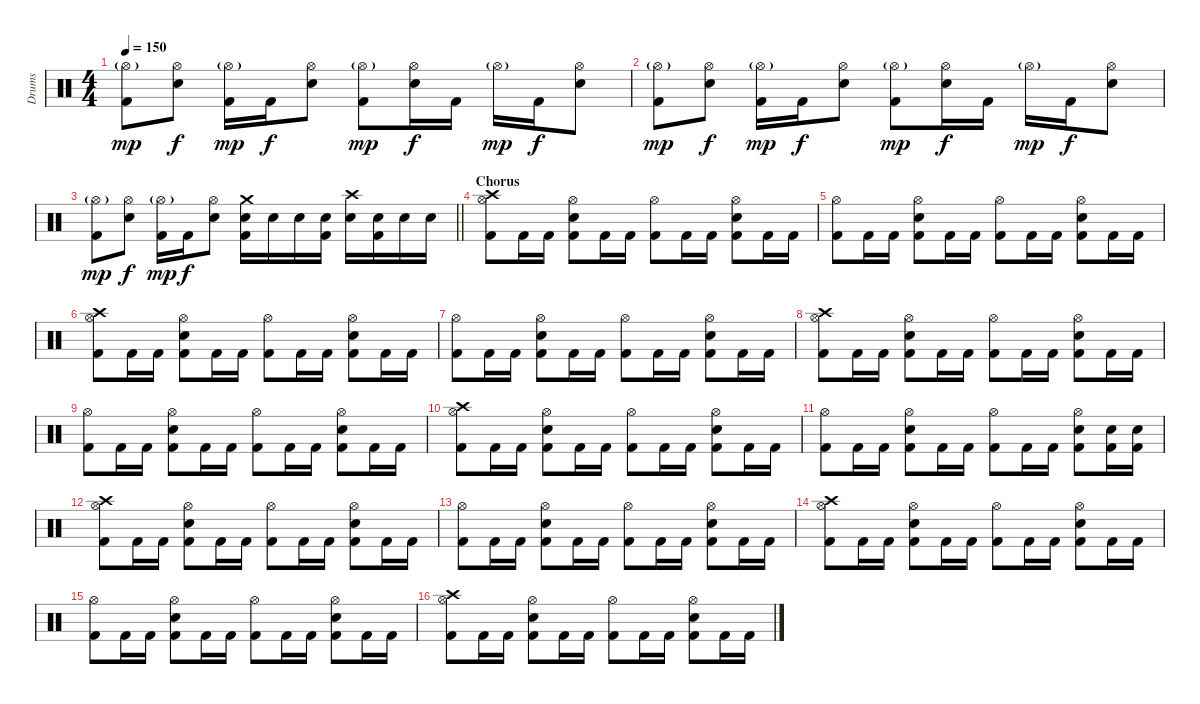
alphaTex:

\track ("Drums" "Drums") {instrument percussion}
\staff {score}
\articulation defaults
\ts (4 4)
\tempo 150
\clef neutral
\ks c
("Hi-Hat (open)"{g} "Kick (hit) 2").8{dy mp} ("Hi-Hat (open)" "Snare (hit) 2").8{dy f} ("Hi-Hat (open)"{g} "Kick (hit) 2").16{dy mp} "Kick (hit) 2".16{dy f} ("Hi-Hat (open)" "Snare (hit) 2").8 ("Hi-Hat (open)"{g} "Kick (hit) 2").8{dy mp} ("Hi-Hat (open)" "Snare (hit) 2").16{dy f} "Kick (hit) 2".16 "Hi-Hat (open)"{g}.16{dy mp} "Kick (hit) 2".16{dy f} ("Hi-Hat (open)" "Snare (hit) 2").8 |
("Hi-Hat (open)"{g} "Kick (hit) 2").8{dy mp} ("Hi-Hat (open)" "Snare (hit) 2").8{dy f} ("Hi-Hat (open)"{g} "Kick (hit) 2").16{dy mp} "Kick (hit) 2".16{dy f} ("Hi-Hat (open)" "Snare (hit) 2").8 ("Hi-Hat (open)"{g} "Kick (hit) 2").8{dy mp} ("Hi-Hat (open)" "Snare (hit) 2").16{dy f} "Kick (hit) 2".16 "Hi-Hat (open)"{g}.16{dy mp} "Kick (hit) 2".16{dy f} ("Hi-Hat (open)" "Snare (hit) 2").8 |
\barLineRight lightlight
("Hi-Hat (open)"{g} "Kick (hit) 2").8{dy mp} ("Hi-Hat (open)" "Snare (hit) 2").8{dy f} ("Hi-Hat (open)"{g} "Kick (hit) 2").16{dy mp} "Kick (hit) 2".16{dy f} ("Hi-Hat (open)" "Snare (hit) 2").8 ("Crash medium (hit)" "Snare (hit) 2" "Kick (hit) 2").16 "Snare (hit) 2".16 "Snare (hit) 2".16 ("Snare (hit) 2" "Kick (hit) 2").16 ("Crash high (hit)" "Snare (hit) 2").16 ("Snare (hit) 2" "Kick (hit) 2").16 "Snare (hit) 2".16 "Snare (hit) 2".16 |
\section ("" "Chorus")
("Crash high (hit)" "Hi-Hat (open)" "Kick (hit) 2").8 "Kick (hit) 2".16 "Kick (hit) 2".16 ("Hi-Hat (open)" "Snare (hit) 2" "Kick (hit) 2").8 "Kick (hit) 2".16 "Kick (hit) 2".16 ("Hi-Hat (open)" "Kick (hit) 2").8 "Kick (hit) 2".16 "Kick (hit) 2".16 ("Hi-Hat (open)" "Snare (hit) 2" "Kick (hit) 2").8 "Kick (hit) 2".16 "Kick (hit) 2".16 |
("Hi-Hat (open)" "Kick (hit) 2").8 "Kick (hit) 2".16 "Kick (hit) 2".16 ("Hi-Hat (open)" "Snare (hit) 2" "Kick (hit) 2").8 "Kick (hit) 2".16 "Kick (hit) 2".16 ("Hi-Hat (open)" "Kick (hit) 2").8 "Kick (hit) 2".16 "Kick (hit) 2".16 ("Hi-Hat (open)" "Snare (hit) 2" "Kick (hit) 2").8 "Kick (hit) 2".16 "Kick (hit) 2".16 |
("Crash high (hit)" "Hi-Hat (open)" "Kick (hit) 2").8 "Kick (hit) 2".16 "Kick (hit) 2".16 ("Hi-Hat (open)" "Snare (hit) 2" "Kick (hit) 2").8 "Kick (hit) 2".16 "Kick (hit) 2".16 ("Hi-Hat (open)" "Kick (hit) 2").8 "Kick (hit) 2".16 "Kick (hit) 2".16 ("Hi-Hat (open)" "Snare (hit) 2" "Kick (hit) 2").8 "Kick (hit) 2".16 "Kick (hit) 2".16 |
("Hi-Hat (open)" "Kick (hit) 2").8 "Kick (hit) 2".16 "Kick (hit) 2".16 ("Hi-Hat (open)" "Snare (hit) 2" "Kick (hit) 2").8 "Kick (hit) 2".16 "Kick (hit) 2".16 ("Hi-Hat (open)" "Kick (hit) 2").8 "Kick (hit) 2".16 "Kick (hit) 2".16 ("Hi-Hat (open)" "Snare (hit) 2" "Kick (hit) 2").8 "Kick (hit) 2".16 "Kick (hit) 2".16 |
("Crash high (hit)" "Hi-Hat (open)" "Kick (hit) 2").8 "Kick (hit) 2".16 "Kick (hit) 2".16 ("Hi-Hat (open)" "Snare (hit) 2" "Kick (hit) 2").8 "Kick (hit) 2".16 "Kick (hit) 2".16 ("Hi-Hat (open)" "Kick (hit) 2").8 "Kick (hit) 2".16 "Kick (hit) 2".16 ("Hi-Hat (open)" "Snare (hit) 2" "Kick (hit) 2").8 "Kick (hit) 2".16 "Kick (hit) 2".16 |
("Hi-Hat (open)" "Kick (hit) 2").8 "Kick (hit) 2".16 "Kick (hit) 2".16 ("Hi-Hat (open)" "Snare (hit) 2" "Kick (hit) 2").8 "Kick (hit) 2".16 "Kick (hit) 2".16 ("Hi-Hat (open)" "Kick (hit) 2").8 "Kick (hit) 2".16 "Kick (hit) 2".16 ("Hi-Hat (open)" "Snare (hit) 2" "Kick (hit) 2").8 "Kick (hit) 2".16 "Kick (hit) 2".16 |
("Crash high (hit)" "Hi-Hat (open)" "Kick (hit) 2").8 "Kick (hit) 2".16 "Kick (hit) 2".16 ("Hi-Hat (open)" "Snare (hit) 2" "Kick (hit) 2").8 "Kick (hit) 2".16 "Kick (hit) 2".16 ("Hi-Hat (open)" "Kick (hit) 2").8 "Kick (hit) 2".16 "Kick (hit) 2".16 ("Hi-Hat (open)" "Snare (hit) 2" "Kick (hit) 2").8 "Kick (hit) 2".16 "Kick (hit) 2".16 |
("Hi-Hat (open)" "Kick (hit) 2").8 "Kick (hit) 2".16 "Kick (hit) 2".16 ("Hi-Hat (open)" "Snare (hit) 2" "Kick (hit) 2").8 "Kick (hit) 2".16 "Kick (hit) 2".16 ("Hi-Hat (open)" "Kick (hit) 2").8 "Kick (hit) 2".16 "Kick (hit) 2".16 ("Hi-Hat (open)" "Snare (hit) 2" "Kick (hit) 2").8 ("Snare (hit) 2" "Kick (hit) 2").16 ("Snare (hit) 2" "Kick (hit) 2").16 |
("Crash high (hit)" "Hi-Hat (open)" "Kick (hit) 2").8 "Kick (hit) 2".16 "Kick (hit) 2".16 ("Hi-Hat (open)" "Snare (hit) 2" "Kick (hit) 2").8 "Kick (hit) 2".16 "Kick (hit) 2".16 ("Hi-Hat (open)" "Kick (hit) 2").8 "Kick (hit) 2".16 "Kick (hit) 2".16 ("Hi-Hat (open)" "Snare (hit) 2" "Kick (hit) 2").8 "Kick (hit) 2".16 "Kick (hit) 2".16 |
("Hi-Hat (open)" "Kick (hit) 2").8 "Kick (hit) 2".16 "Kick (hit) 2".16 ("Hi-Hat (open)" "Snare (hit) 2" "Kick (hit) 2").8 "Kick (hit) 2".16 "Kick (hit) 2".16 ("Hi-Hat (open)" "Kick (hit) 2").8 "Kick (hit) 2".16 "Kick (hit) 2".16 ("Hi-Hat (open)" "Snare (hit) 2" "Kick (hit) 2").8 "Kick (hit) 2".16 "Kick (hit) 2".16 |
("Crash high (hit)" "Hi-Hat (open)" "Kick (hit) 2").8 "Kick (hit) 2".16 "Kick (hit) 2".16 ("Hi-Hat (open)" "Snare (hit) 2" "Kick (hit) 2").8 "Kick (hit) 2".16 "Kick (hit) 2".16 ("Hi-Hat (open)" "Kick (hit) 2").8 "Kick (hit) 2".16 "Kick (hit) 2".16 ("Hi-Hat (open)" "Snare (hit) 2" "Kick (hit) 2").8 "Kick (hit) 2".16 "Kick (hit) 2".16 |
("Hi-Hat (open)" "Kick (hit) 2").8 "Kick (hit) 2".16 "Kick (hit) 2".16 ("Hi-Hat (open)" "Snare (hit) 2" "Kick (hit) 2").8 "Kick (hit) 2".16 "Kick (hit) 2".16 ("Hi-Hat (open)" "Kick (hit) 2").8 "Kick (hit) 2".16 "Kick (hit) 2".16 ("Hi-Hat (open)" "Snare (hit) 2" "Kick (hit) 2").8 "Kick (hit) 2".16 "Kick (hit) 2".16 |
("Crash high (hit)" "Hi-Hat (open)" "Kick (hit) 2").8 "Kick (hit) 2".16 "Kick (hit) 2".16 ("Hi-Hat (open)" "Snare (hit) 2" "Kick (hit) 2").8 "Kick (hit) 2".16 "Kick (hit) 2".16 ("Hi-Hat (open)" "Kick (hit) 2").8 "Kick (hit) 2".16 "Kick (hit) 2".16 ("Hi-Hat (open)" "Snare (hit) 2" "Kick (hit) 2").8 "Kick (hit) 2".16 "Kick (hit) 2".16
